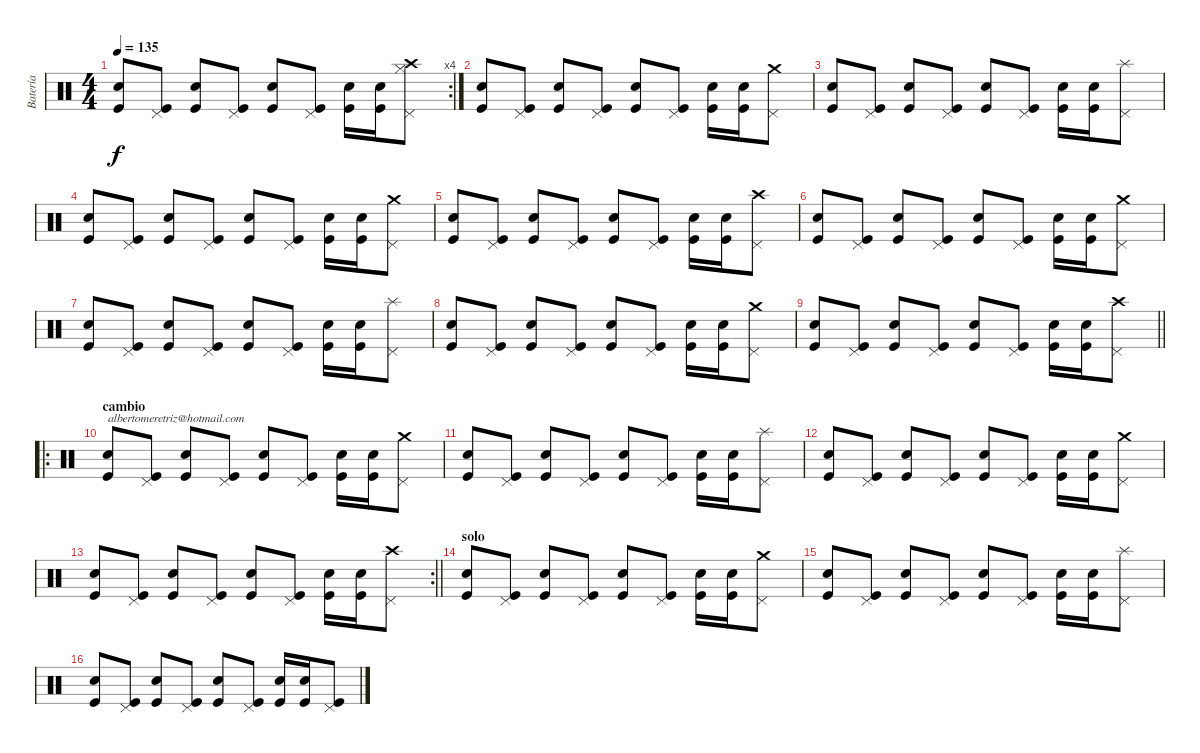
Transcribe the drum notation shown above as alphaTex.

\track ("Batería" "Batería") {instrument percussion}
\staff {score}
\articulation defaults
\rc 4
\ts (4 4)
\tempo 135
\clef neutral
\ks c
("Kick (hit)" "Electric Snare (hit)").8{dy f} ("Kick (hit)" "Pedal Hi-Hat (hit)").8 ("Kick (hit)" "Electric Snare (hit)").8 ("Kick (hit)" "Pedal Hi-Hat (hit)").8 ("Kick (hit)" "Electric Snare (hit)").8 ("Kick (hit)" "Pedal Hi-Hat (hit)").8 ("Kick (hit)" "Electric Snare (hit)").16 ("Kick (hit)" "Electric Snare (hit)").16 ("Crash high (hit)" "Hi-Hat (closed)" "Pedal Hi-Hat (hit)").8 |
("Kick (hit)" "Electric Snare (hit)").8 ("Kick (hit)" "Pedal Hi-Hat (hit)").8 ("Kick (hit)" "Electric Snare (hit)").8 ("Kick (hit)" "Pedal Hi-Hat (hit)").8 ("Kick (hit)" "Electric Snare (hit)").8 ("Kick (hit)" "Pedal Hi-Hat (hit)").8 ("Kick (hit)" "Electric Snare (hit)").16 ("Kick (hit)" "Electric Snare (hit)").16 ("Crash medium (hit)" "Pedal Hi-Hat (hit)").8 |
("Kick (hit)" "Electric Snare (hit)").8 ("Kick (hit)" "Pedal Hi-Hat (hit)").8 ("Kick (hit)" "Electric Snare (hit)").8 ("Kick (hit)" "Pedal Hi-Hat (hit)").8 ("Kick (hit)" "Electric Snare (hit)").8 ("Kick (hit)" "Pedal Hi-Hat (hit)").8 ("Kick (hit)" "Electric Snare (hit)").16 ("Kick (hit)" "Electric Snare (hit)").16 ("Splash (hit)" "Pedal Hi-Hat (hit)").8 |
("Kick (hit)" "Electric Snare (hit)").8 ("Kick (hit)" "Pedal Hi-Hat (hit)").8 ("Kick (hit)" "Electric Snare (hit)").8 ("Kick (hit)" "Pedal Hi-Hat (hit)").8 ("Kick (hit)" "Electric Snare (hit)").8 ("Kick (hit)" "Pedal Hi-Hat (hit)").8 ("Kick (hit)" "Electric Snare (hit)").16 ("Kick (hit)" "Electric Snare (hit)").16 ("Crash medium (hit)" "Pedal Hi-Hat (hit)").8 |
("Kick (hit)" "Electric Snare (hit)").8 ("Kick (hit)" "Pedal Hi-Hat (hit)").8 ("Kick (hit)" "Electric Snare (hit)").8 ("Kick (hit)" "Pedal Hi-Hat (hit)").8 ("Kick (hit)" "Electric Snare (hit)").8 ("Kick (hit)" "Pedal Hi-Hat (hit)").8 ("Kick (hit)" "Electric Snare (hit)").16 ("Kick (hit)" "Electric Snare (hit)").16 ("Crash high (hit)" "Pedal Hi-Hat (hit)").8 |
("Kick (hit)" "Electric Snare (hit)").8 ("Kick (hit)" "Pedal Hi-Hat (hit)").8 ("Kick (hit)" "Electric Snare (hit)").8 ("Kick (hit)" "Pedal Hi-Hat (hit)").8 ("Kick (hit)" "Electric Snare (hit)").8 ("Kick (hit)" "Pedal Hi-Hat (hit)").8 ("Kick (hit)" "Electric Snare (hit)").16 ("Kick (hit)" "Electric Snare (hit)").16 ("Crash medium (hit)" "Pedal Hi-Hat (hit)").8 |
("Kick (hit)" "Electric Snare (hit)").8 ("Kick (hit)" "Pedal Hi-Hat (hit)").8 ("Kick (hit)" "Electric Snare (hit)").8 ("Kick (hit)" "Pedal Hi-Hat (hit)").8 ("Kick (hit)" "Electric Snare (hit)").8 ("Kick (hit)" "Pedal Hi-Hat (hit)").8 ("Kick (hit)" "Electric Snare (hit)").16 ("Kick (hit)" "Electric Snare (hit)").16 ("Splash (hit)" "Pedal Hi-Hat (hit)").8 |
("Kick (hit)" "Electric Snare (hit)").8 ("Kick (hit)" "Pedal Hi-Hat (hit)").8 ("Kick (hit)" "Electric Snare (hit)").8 ("Kick (hit)" "Pedal Hi-Hat (hit)").8 ("Kick (hit)" "Electric Snare (hit)").8 ("Kick (hit)" "Pedal Hi-Hat (hit)").8 ("Kick (hit)" "Electric Snare (hit)").16 ("Kick (hit)" "Electric Snare (hit)").16 ("Crash medium (hit)" "Pedal Hi-Hat (hit)").8 |
\barLineRight lightlight
("Kick (hit)" "Electric Snare (hit)").8 ("Kick (hit)" "Pedal Hi-Hat (hit)").8 ("Kick (hit)" "Electric Snare (hit)").8 ("Kick (hit)" "Pedal Hi-Hat (hit)").8 ("Kick (hit)" "Electric Snare (hit)").8 ("Kick (hit)" "Pedal Hi-Hat (hit)").8 ("Kick (hit)" "Electric Snare (hit)").16 ("Kick (hit)" "Electric Snare (hit)").16 ("Crash high (hit)" "Pedal Hi-Hat (hit)").8 |
\ro
\section ("" "cambio")
("Kick (hit)" "Electric Snare (hit)").8{txt "albertomeretriz@hotmail.com"} ("Kick (hit)" "Pedal Hi-Hat (hit)").8 ("Kick (hit)" "Electric Snare (hit)").8 ("Kick (hit)" "Pedal Hi-Hat (hit)").8 ("Kick (hit)" "Electric Snare (hit)").8 ("Kick (hit)" "Pedal Hi-Hat (hit)").8 ("Kick (hit)" "Electric Snare (hit)").16 ("Kick (hit)" "Electric Snare (hit)").16 ("Crash medium (hit)" "Pedal Hi-Hat (hit)").8 |
("Kick (hit)" "Electric Snare (hit)").8 ("Kick (hit)" "Pedal Hi-Hat (hit)").8 ("Kick (hit)" "Electric Snare (hit)").8 ("Kick (hit)" "Pedal Hi-Hat (hit)").8 ("Kick (hit)" "Electric Snare (hit)").8 ("Kick (hit)" "Pedal Hi-Hat (hit)").8 ("Kick (hit)" "Electric Snare (hit)").16 ("Kick (hit)" "Electric Snare (hit)").16 ("Splash (hit)" "Pedal Hi-Hat (hit)").8 |
("Kick (hit)" "Electric Snare (hit)").8 ("Kick (hit)" "Pedal Hi-Hat (hit)").8 ("Kick (hit)" "Electric Snare (hit)").8 ("Kick (hit)" "Pedal Hi-Hat (hit)").8 ("Kick (hit)" "Electric Snare (hit)").8 ("Kick (hit)" "Pedal Hi-Hat (hit)").8 ("Kick (hit)" "Electric Snare (hit)").16 ("Kick (hit)" "Electric Snare (hit)").16 ("Crash medium (hit)" "Pedal Hi-Hat (hit)").8 |
\rc 2
\barLineRight lightlight
("Kick (hit)" "Electric Snare (hit)").8 ("Kick (hit)" "Pedal Hi-Hat (hit)").8 ("Kick (hit)" "Electric Snare (hit)").8 ("Kick (hit)" "Pedal Hi-Hat (hit)").8 ("Kick (hit)" "Electric Snare (hit)").8 ("Kick (hit)" "Pedal Hi-Hat (hit)").8 ("Kick (hit)" "Electric Snare (hit)").16 ("Kick (hit)" "Electric Snare (hit)").16 ("Crash high (hit)" "Pedal Hi-Hat (hit)").8 |
\section ("" "solo")
("Kick (hit)" "Electric Snare (hit)").8 ("Kick (hit)" "Pedal Hi-Hat (hit)").8 ("Kick (hit)" "Electric Snare (hit)").8 ("Kick (hit)" "Pedal Hi-Hat (hit)").8 ("Kick (hit)" "Electric Snare (hit)").8 ("Kick (hit)" "Pedal Hi-Hat (hit)").8 ("Kick (hit)" "Electric Snare (hit)").16 ("Kick (hit)" "Electric Snare (hit)").16 ("Crash medium (hit)" "Pedal Hi-Hat (hit)").8 |
("Kick (hit)" "Electric Snare (hit)").8 ("Kick (hit)" "Pedal Hi-Hat (hit)").8 ("Kick (hit)" "Electric Snare (hit)").8 ("Kick (hit)" "Pedal Hi-Hat (hit)").8 ("Kick (hit)" "Electric Snare (hit)").8 ("Kick (hit)" "Pedal Hi-Hat (hit)").8 ("Kick (hit)" "Electric Snare (hit)").16 ("Kick (hit)" "Electric Snare (hit)").16 ("Splash (hit)" "Pedal Hi-Hat (hit)").8 |
("Kick (hit)" "Electric Snare (hit)").8 ("Kick (hit)" "Pedal Hi-Hat (hit)").8 ("Kick (hit)" "Electric Snare (hit)").8 ("Kick (hit)" "Pedal Hi-Hat (hit)").8 ("Kick (hit)" "Electric Snare (hit)").8 ("Kick (hit)" "Pedal Hi-Hat (hit)").8 ("Kick (hit)" "Electric Snare (hit)").16 ("Kick (hit)" "Electric Snare (hit)").16 ("Kick (hit)" "Pedal Hi-Hat (hit)").8
